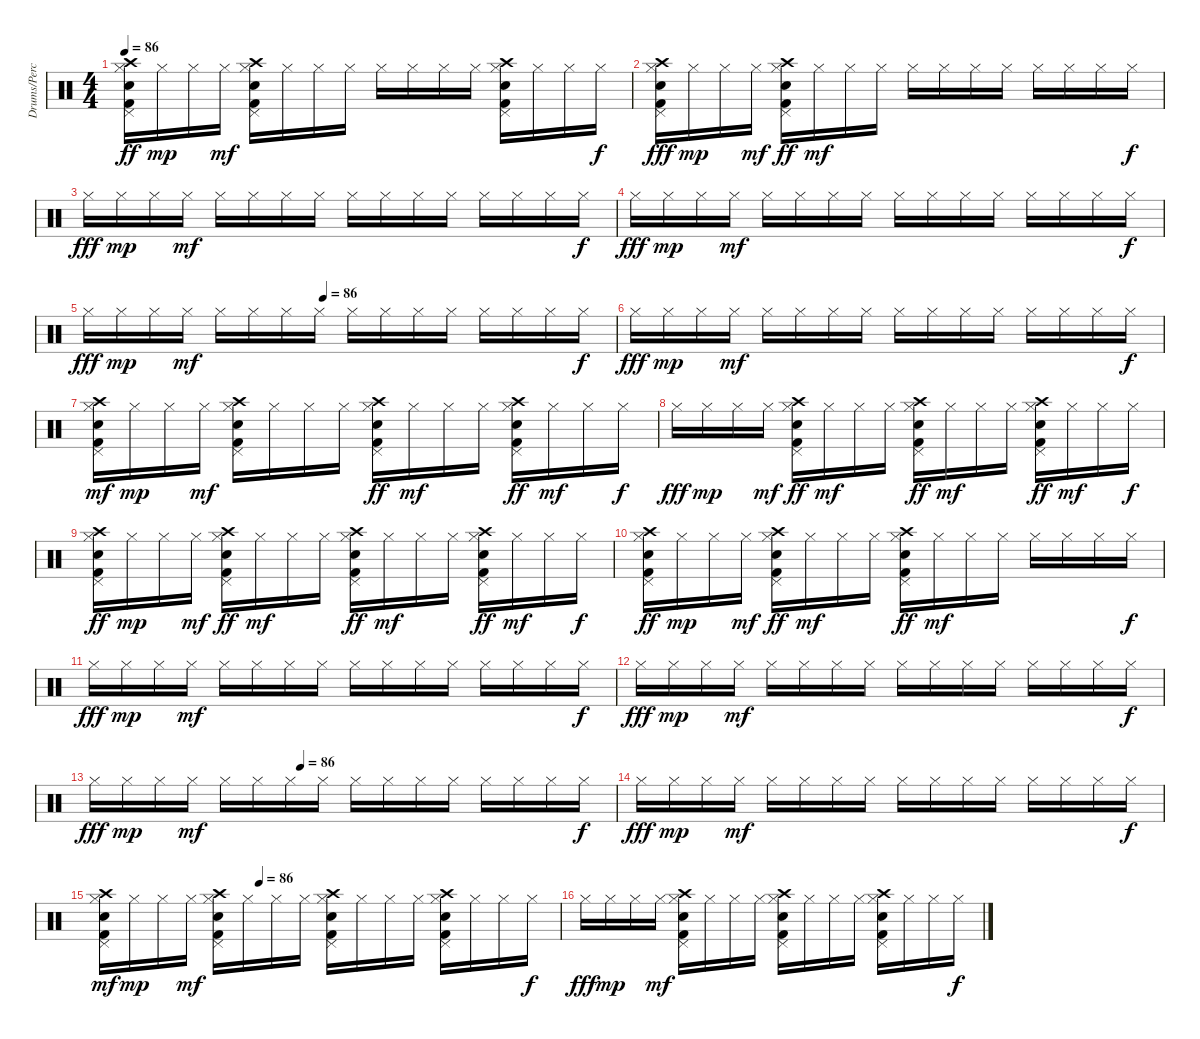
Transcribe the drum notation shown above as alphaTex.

\track ("Drums/Percussion" "Drums/Perc") {instrument percussion}
\staff {score}
\articulation defaults
\ts (4 4)
\tempo 86
\clef neutral
\ks c
("Hi-Hat (closed)" "Crash high (hit)" "Pedal Hi-Hat (hit)" "Kick (hit) 2" "Electric Snare (hit)").16{dy ff} "Hi-Hat (closed)".16{dy mp} "Hi-Hat (closed)".16 "Hi-Hat (closed)".16{dy mf} ("Hi-Hat (closed)" "Pedal Hi-Hat (hit)" "Crash high (hit)" "Kick (hit) 2" "Electric Snare (hit)").16 "Hi-Hat (closed)".16 "Hi-Hat (closed)".16 "Hi-Hat (closed)".16 "Hi-Hat (closed)".16 "Hi-Hat (closed)".16 "Hi-Hat (closed)".16 "Hi-Hat (closed)".16 ("Hi-Hat (closed)" "Kick (hit) 2" "Crash high (hit)" "Pedal Hi-Hat (hit)" "Electric Snare (hit)").16 "Hi-Hat (closed)".16 "Hi-Hat (closed)".16 "Hi-Hat (closed)".16{dy f} |
("Hi-Hat (closed)" "Kick (hit) 2" "Crash high (hit)" "Electric Snare (hit)" "Pedal Hi-Hat (hit)").16{dy fff} "Hi-Hat (closed)".16{dy mp} "Hi-Hat (closed)".16 "Hi-Hat (closed)".16{dy mf} ("Hi-Hat (closed)" "Pedal Hi-Hat (hit)" "Kick (hit) 2" "Crash high (hit)" "Electric Snare (hit)").16{dy ff} "Hi-Hat (closed)".16{dy mf} "Hi-Hat (closed)".16 "Hi-Hat (closed)".16 "Hi-Hat (closed)".16 "Hi-Hat (closed)".16 "Hi-Hat (closed)".16 "Hi-Hat (closed)".16 "Hi-Hat (closed)".16 "Hi-Hat (closed)".16 "Hi-Hat (closed)".16 "Hi-Hat (closed)".16{dy f} |
"Hi-Hat (closed)".16{dy fff} "Hi-Hat (closed)".16{dy mp} "Hi-Hat (closed)".16 "Hi-Hat (closed)".16{dy mf} "Hi-Hat (closed)".16 "Hi-Hat (closed)".16 "Hi-Hat (closed)".16 "Hi-Hat (closed)".16 "Hi-Hat (closed)".16 "Hi-Hat (closed)".16 "Hi-Hat (closed)".16 "Hi-Hat (closed)".16 "Hi-Hat (closed)".16 "Hi-Hat (closed)".16 "Hi-Hat (closed)".16 "Hi-Hat (closed)".16{dy f} |
"Hi-Hat (closed)".16{dy fff} "Hi-Hat (closed)".16{dy mp} "Hi-Hat (closed)".16 "Hi-Hat (closed)".16{dy mf} "Hi-Hat (closed)".16 "Hi-Hat (closed)".16 "Hi-Hat (closed)".16 "Hi-Hat (closed)".16 "Hi-Hat (closed)".16 "Hi-Hat (closed)".16 "Hi-Hat (closed)".16 "Hi-Hat (closed)".16 "Hi-Hat (closed)".16 "Hi-Hat (closed)".16 "Hi-Hat (closed)".16 "Hi-Hat (closed)".16{dy f} |
\tempo (86 0.446875)
"Hi-Hat (closed)".16{dy fff} "Hi-Hat (closed)".16{dy mp} "Hi-Hat (closed)".16 "Hi-Hat (closed)".16{dy mf} "Hi-Hat (closed)".16 "Hi-Hat (closed)".16 "Hi-Hat (closed)".16 "Hi-Hat (closed)".16 "Hi-Hat (closed)".16 "Hi-Hat (closed)".16 "Hi-Hat (closed)".16 "Hi-Hat (closed)".16 "Hi-Hat (closed)".16 "Hi-Hat (closed)".16 "Hi-Hat (closed)".16 "Hi-Hat (closed)".16{dy f} |
"Hi-Hat (closed)".16{dy fff} "Hi-Hat (closed)".16{dy mp} "Hi-Hat (closed)".16 "Hi-Hat (closed)".16{dy mf} "Hi-Hat (closed)".16 "Hi-Hat (closed)".16 "Hi-Hat (closed)".16 "Hi-Hat (closed)".16 "Hi-Hat (closed)".16 "Hi-Hat (closed)".16 "Hi-Hat (closed)".16 "Hi-Hat (closed)".16 "Hi-Hat (closed)".16 "Hi-Hat (closed)".16 "Hi-Hat (closed)".16 "Hi-Hat (closed)".16{dy f} |
("Hi-Hat (closed)" "Crash high (hit)" "Electric Snare (hit)" "Kick (hit) 2" "Pedal Hi-Hat (hit)").16{dy mf} "Hi-Hat (closed)".16{dy mp} "Hi-Hat (closed)".16 "Hi-Hat (closed)".16{dy mf} ("Hi-Hat (closed)" "Kick (hit) 2" "Electric Snare (hit)" "Pedal Hi-Hat (hit)" "Crash high (hit)").16 "Hi-Hat (closed)".16 "Hi-Hat (closed)".16 "Hi-Hat (closed)".16 ("Hi-Hat (closed)" "Crash high (hit)" "Pedal Hi-Hat (hit)" "Kick (hit) 2" "Electric Snare (hit)").16{dy ff} "Hi-Hat (closed)".16{dy mf} "Hi-Hat (closed)".16 "Hi-Hat (closed)".16 ("Hi-Hat (closed)" "Pedal Hi-Hat (hit)" "Kick (hit) 2" "Crash high (hit)" "Electric Snare (hit)").16{dy ff} "Hi-Hat (closed)".16{dy mf} "Hi-Hat (closed)".16 "Hi-Hat (closed)".16{dy f} |
"Hi-Hat (closed)".16{dy fff} "Hi-Hat (closed)".16{dy mp} "Hi-Hat (closed)".16 "Hi-Hat (closed)".16{dy mf} ("Hi-Hat (closed)" "Kick (hit) 2" "Electric Snare (hit)" "Crash high (hit)" "Pedal Hi-Hat (hit)").16{dy ff} "Hi-Hat (closed)".16{dy mf} "Hi-Hat (closed)".16 "Hi-Hat (closed)".16 ("Hi-Hat (closed)" "Pedal Hi-Hat (hit)" "Crash high (hit)" "Electric Snare (hit)" "Kick (hit) 2").16{dy ff} "Hi-Hat (closed)".16{dy mf} "Hi-Hat (closed)".16 "Hi-Hat (closed)".16 ("Hi-Hat (closed)" "Pedal Hi-Hat (hit)" "Crash high (hit)" "Kick (hit) 2" "Electric Snare (hit)").16{dy ff} "Hi-Hat (closed)".16{dy mf} "Hi-Hat (closed)".16 "Hi-Hat (closed)".16{dy f} |
("Hi-Hat (closed)" "Pedal Hi-Hat (hit)" "Crash high (hit)" "Kick (hit) 2" "Electric Snare (hit)").16{dy ff} "Hi-Hat (closed)".16{dy mp} "Hi-Hat (closed)".16 "Hi-Hat (closed)".16{dy mf} ("Hi-Hat (closed)" "Kick (hit) 2" "Electric Snare (hit)" "Pedal Hi-Hat (hit)" "Crash high (hit)").16{dy ff} "Hi-Hat (closed)".16{dy mf} "Hi-Hat (closed)".16 "Hi-Hat (closed)".16 ("Hi-Hat (closed)" "Kick (hit) 2" "Electric Snare (hit)" "Crash high (hit)" "Pedal Hi-Hat (hit)").16{dy ff} "Hi-Hat (closed)".16{dy mf} "Hi-Hat (closed)".16 "Hi-Hat (closed)".16 ("Hi-Hat (closed)" "Kick (hit) 2" "Electric Snare (hit)" "Crash high (hit)" "Pedal Hi-Hat (hit)").16{dy ff} "Hi-Hat (closed)".16{dy mf} "Hi-Hat (closed)".16 "Hi-Hat (closed)".16{dy f} |
("Hi-Hat (closed)" "Kick (hit) 2" "Electric Snare (hit)" "Crash high (hit)" "Pedal Hi-Hat (hit)").16{dy ff} "Hi-Hat (closed)".16{dy mp} "Hi-Hat (closed)".16 "Hi-Hat (closed)".16{dy mf} ("Hi-Hat (closed)" "Crash high (hit)" "Pedal Hi-Hat (hit)" "Kick (hit) 2" "Electric Snare (hit)").16{dy ff} "Hi-Hat (closed)".16{dy mf} "Hi-Hat (closed)".16 "Hi-Hat (closed)".16 ("Hi-Hat (closed)" "Crash high (hit)" "Pedal Hi-Hat (hit)" "Kick (hit) 2" "Electric Snare (hit)").16{dy ff} "Hi-Hat (closed)".16{dy mf} "Hi-Hat (closed)".16 "Hi-Hat (closed)".16 "Hi-Hat (closed)".16 "Hi-Hat (closed)".16 "Hi-Hat (closed)".16 "Hi-Hat (closed)".16{dy f} |
"Hi-Hat (closed)".16{dy fff} "Hi-Hat (closed)".16{dy mp} "Hi-Hat (closed)".16 "Hi-Hat (closed)".16{dy mf} "Hi-Hat (closed)".16 "Hi-Hat (closed)".16 "Hi-Hat (closed)".16 "Hi-Hat (closed)".16 "Hi-Hat (closed)".16 "Hi-Hat (closed)".16 "Hi-Hat (closed)".16 "Hi-Hat (closed)".16 "Hi-Hat (closed)".16 "Hi-Hat (closed)".16 "Hi-Hat (closed)".16 "Hi-Hat (closed)".16{dy f} |
"Hi-Hat (closed)".16{dy fff} "Hi-Hat (closed)".16{dy mp} "Hi-Hat (closed)".16 "Hi-Hat (closed)".16{dy mf} "Hi-Hat (closed)".16 "Hi-Hat (closed)".16 "Hi-Hat (closed)".16 "Hi-Hat (closed)".16 "Hi-Hat (closed)".16 "Hi-Hat (closed)".16 "Hi-Hat (closed)".16 "Hi-Hat (closed)".16 "Hi-Hat (closed)".16 "Hi-Hat (closed)".16 "Hi-Hat (closed)".16 "Hi-Hat (closed)".16{dy f} |
\tempo (86 0.396875)
"Hi-Hat (closed)".16{dy fff} "Hi-Hat (closed)".16{dy mp} "Hi-Hat (closed)".16 "Hi-Hat (closed)".16{dy mf} "Hi-Hat (closed)".16 "Hi-Hat (closed)".16 "Hi-Hat (closed)".16 "Hi-Hat (closed)".16 "Hi-Hat (closed)".16 "Hi-Hat (closed)".16 "Hi-Hat (closed)".16 "Hi-Hat (closed)".16 "Hi-Hat (closed)".16 "Hi-Hat (closed)".16 "Hi-Hat (closed)".16 "Hi-Hat (closed)".16{dy f} |
"Hi-Hat (closed)".16{dy fff} "Hi-Hat (closed)".16{dy mp} "Hi-Hat (closed)".16 "Hi-Hat (closed)".16{dy mf} "Hi-Hat (closed)".16 "Hi-Hat (closed)".16 "Hi-Hat (closed)".16 "Hi-Hat (closed)".16 "Hi-Hat (closed)".16 "Hi-Hat (closed)".16 "Hi-Hat (closed)".16 "Hi-Hat (closed)".16 "Hi-Hat (closed)".16 "Hi-Hat (closed)".16 "Hi-Hat (closed)".16 "Hi-Hat (closed)".16{dy f} |
\tempo (86 0.346875)
("Hi-Hat (closed)" "Crash high (hit)" "Pedal Hi-Hat (hit)" "Electric Snare (hit)" "Kick (hit) 2").16{dy mf} "Hi-Hat (closed)".16{dy mp} "Hi-Hat (closed)".16 "Hi-Hat (closed)".16{dy mf} ("Hi-Hat (closed)" "Pedal Hi-Hat (hit)" "Crash high (hit)" "Kick (hit) 2" "Electric Snare (hit)").16 "Hi-Hat (closed)".16 "Hi-Hat (closed)".16 "Hi-Hat (closed)".16 ("Hi-Hat (closed)" "Crash high (hit)" "Pedal Hi-Hat (hit)" "Kick (hit) 2" "Electric Snare (hit)").16 "Hi-Hat (closed)".16 "Hi-Hat (closed)".16 "Hi-Hat (closed)".16 ("Hi-Hat (closed)" "Kick (hit) 2" "Electric Snare (hit)" "Pedal Hi-Hat (hit)" "Crash high (hit)").16 "Hi-Hat (closed)".16 "Hi-Hat (closed)".16 "Hi-Hat (closed)".16{dy f} |
"Hi-Hat (closed)".16{dy fff} "Hi-Hat (closed)".16{dy mp} "Hi-Hat (closed)".16 "Hi-Hat (closed)".16{dy mf} ("Hi-Hat (closed)" "Pedal Hi-Hat (hit)" "Crash high (hit)" "Kick (hit) 2" "Electric Snare (hit)").16 "Hi-Hat (closed)".16 "Hi-Hat (closed)".16 "Hi-Hat (closed)".16 ("Hi-Hat (closed)" "Kick (hit) 2" "Crash high (hit)" "Pedal Hi-Hat (hit)" "Electric Snare (hit)").16 "Hi-Hat (closed)".16 "Hi-Hat (closed)".16 "Hi-Hat (closed)".16 ("Hi-Hat (closed)" "Pedal Hi-Hat (hit)" "Crash high (hit)" "Electric Snare (hit)" "Kick (hit) 2").16 "Hi-Hat (closed)".16 "Hi-Hat (closed)".16 "Hi-Hat (closed)".16{dy f}
